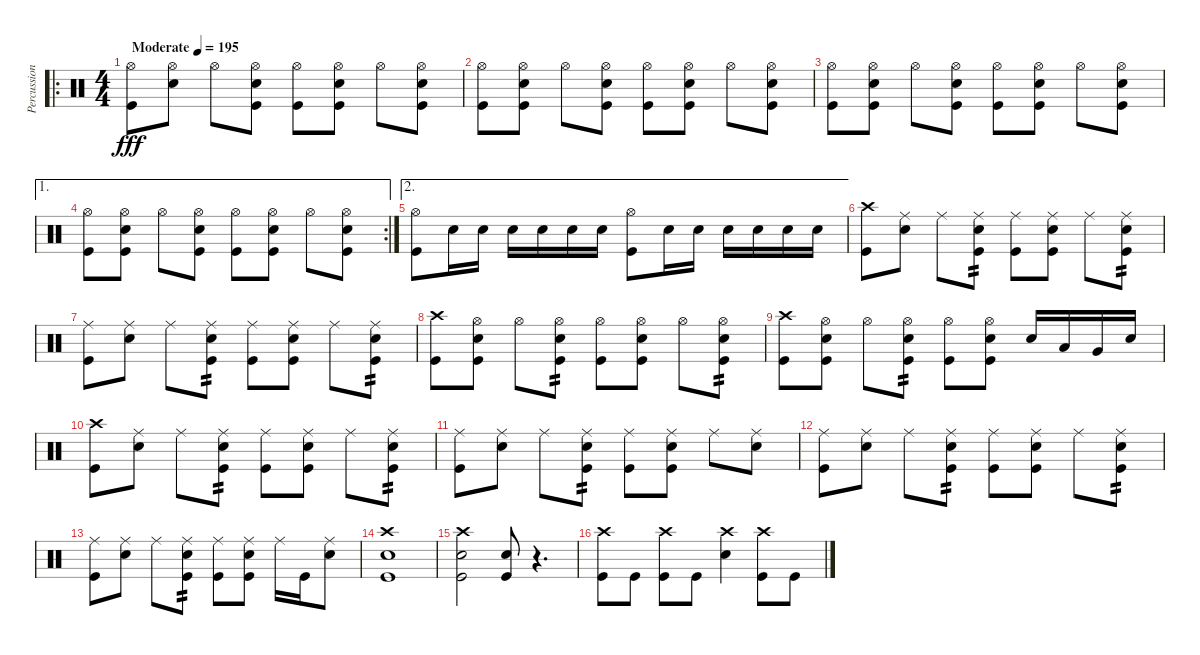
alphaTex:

\track ("Percussions" "Percussion") {instrument percussion}
\staff {score}
\articulation defaults
\ro
\ts (4 4)
\tempo (195 "Moderate")
\clef neutral
\ks c
("Hi-Hat (open)" "Kick (hit)").8{dy fff} ("Hi-Hat (open)" "Electric Snare (hit)").8 "Hi-Hat (open)".8 ("Hi-Hat (open)" "Electric Snare (hit)" "Kick (hit)").8 ("Hi-Hat (open)" "Kick (hit)").8 ("Hi-Hat (open)" "Electric Snare (hit)" "Kick (hit)").8 "Hi-Hat (open)".8 ("Hi-Hat (open)" "Electric Snare (hit)" "Kick (hit)").8 |
("Hi-Hat (open)" "Kick (hit)").8 ("Hi-Hat (open)" "Electric Snare (hit)" "Kick (hit)").8 "Hi-Hat (open)".8 ("Hi-Hat (open)" "Electric Snare (hit)" "Kick (hit)").8 ("Hi-Hat (open)" "Kick (hit)").8 ("Hi-Hat (open)" "Electric Snare (hit)" "Kick (hit)").8 "Hi-Hat (open)".8 ("Hi-Hat (open)" "Electric Snare (hit)" "Kick (hit)").8 |
("Hi-Hat (open)" "Kick (hit)").8 ("Hi-Hat (open)" "Electric Snare (hit)" "Kick (hit)").8 "Hi-Hat (open)".8 ("Hi-Hat (open)" "Electric Snare (hit)" "Kick (hit)").8 ("Hi-Hat (open)" "Kick (hit)").8 ("Hi-Hat (open)" "Electric Snare (hit)" "Kick (hit)").8 "Hi-Hat (open)".8 ("Hi-Hat (open)" "Electric Snare (hit)" "Kick (hit)").8 |
\ae 1
\rc 2
("Hi-Hat (open)" "Kick (hit)").8 ("Hi-Hat (open)" "Electric Snare (hit)" "Kick (hit)").8 "Hi-Hat (open)".8 ("Hi-Hat (open)" "Electric Snare (hit)" "Kick (hit)").8 ("Hi-Hat (open)" "Kick (hit)").8 ("Hi-Hat (open)" "Electric Snare (hit)" "Kick (hit)").8 "Hi-Hat (open)".8 ("Hi-Hat (open)" "Electric Snare (hit)" "Kick (hit)").8 |
\ae 2
("Hi-Hat (open)" "Kick (hit)").8 "Electric Snare (hit)".16 "Electric Snare (hit)".16 "Electric Snare (hit)".16 "Electric Snare (hit)".16 "Electric Snare (hit)".16 "Electric Snare (hit)".16 ("Hi-Hat (open)" "Kick (hit)").8 "Electric Snare (hit)".16 "Electric Snare (hit)".16 "Electric Snare (hit)".16 "Electric Snare (hit)".16 "Electric Snare (hit)".16 "Electric Snare (hit)".16 |
("Crash high (hit)" "Kick (hit)").8 ("Ride (middle)" "Electric Snare (hit)").8 "Ride (middle)".8 ("Ride (middle)" "Electric Snare (hit)" "Kick (hit)").8{tp 2} ("Ride (middle)" "Kick (hit)").8 ("Ride (middle)" "Electric Snare (hit)" "Kick (hit)").8 "Ride (middle)".8 ("Ride (middle)" "Electric Snare (hit)" "Kick (hit)").8{tp 2} |
("Ride (middle)" "Kick (hit)").8 ("Ride (middle)" "Electric Snare (hit)").8 "Ride (middle)".8 ("Ride (middle)" "Electric Snare (hit)" "Kick (hit)").8{tp 2} ("Ride (middle)" "Kick (hit)").8 ("Ride (middle)" "Electric Snare (hit)" "Kick (hit)").8 "Ride (middle)".8 ("Ride (middle)" "Electric Snare (hit)" "Kick (hit)").8{tp 2} |
("Crash high (hit)" "Kick (hit)").8 ("Hi-Hat (open)" "Electric Snare (hit)" "Kick (hit)").8 "Hi-Hat (open)".8 ("Hi-Hat (open)" "Electric Snare (hit)" "Kick (hit)").8{tp 2} ("Hi-Hat (open)" "Kick (hit)").8 ("Hi-Hat (open)" "Electric Snare (hit)" "Kick (hit)").8 "Hi-Hat (open)".8 ("Hi-Hat (open)" "Electric Snare (hit)" "Kick (hit)").8{tp 2} |
("Crash high (hit)" "Kick (hit)").8 ("Hi-Hat (open)" "Electric Snare (hit)" "Kick (hit)").8 "Hi-Hat (open)".8 ("Hi-Hat (open)" "Electric Snare (hit)" "Kick (hit)").8{tp 2} ("Hi-Hat (open)" "Kick (hit)").8 ("Hi-Hat (open)" "Electric Snare (hit)" "Kick (hit)").8 "Electric Snare (hit)".16 "Low Tom (hit)".16 "Very Low Tom (hit)".16 "Electric Snare (hit)".16 |
("Crash high (hit)" "Kick (hit)").8 ("Ride (middle)" "Electric Snare (hit)").8 "Ride (middle)".8 ("Ride (middle)" "Electric Snare (hit)" "Kick (hit)").8{tp 2} ("Ride (middle)" "Kick (hit)").8 ("Ride (middle)" "Electric Snare (hit)" "Kick (hit)").8 "Ride (middle)".8 ("Ride (middle)" "Electric Snare (hit)" "Kick (hit)").8{tp 2} |
("Ride (middle)" "Kick (hit)").8 ("Ride (middle)" "Electric Snare (hit)").8 "Ride (middle)".8 ("Ride (middle)" "Electric Snare (hit)" "Kick (hit)").8{tp 2} ("Ride (middle)" "Kick (hit)").8 ("Ride (middle)" "Electric Snare (hit)" "Kick (hit)").8 "Ride (middle)".8 ("Ride (middle)" "Electric Snare (hit)").8 |
("Ride (middle)" "Kick (hit)").8 ("Ride (middle)" "Electric Snare (hit)").8 "Ride (middle)".8 ("Ride (middle)" "Electric Snare (hit)" "Kick (hit)").8{tp 2} ("Ride (middle)" "Kick (hit)").8 ("Ride (middle)" "Electric Snare (hit)" "Kick (hit)").8 "Ride (middle)".8 ("Ride (middle)" "Electric Snare (hit)" "Kick (hit)").8{tp 2} |
("Ride (middle)" "Kick (hit)").8 ("Ride (middle)" "Electric Snare (hit)").8 "Ride (middle)".8 ("Ride (middle)" "Electric Snare (hit)" "Kick (hit)").8{tp 2} ("Ride (middle)" "Kick (hit)").8 ("Ride (middle)" "Electric Snare (hit)" "Kick (hit)").8 "Ride (middle)".16 "Kick (hit)".16 ("Ride (middle)" "Electric Snare (hit)").8 |
("Crash high (hit)" "Electric Snare (hit)" "Kick (hit)").1 |
("Crash high (hit)" "Electric Snare (hit)" "Kick (hit)").2 ("Electric Snare (hit)" "Kick (hit)").8 r.4{d} |
("Crash high (hit)" "Kick (hit)").8 "Kick (hit)".8 ("Crash high (hit)" "Kick (hit)").8 "Kick (hit)".8 ("Crash high (hit)" "Electric Snare (hit)").4 ("Crash high (hit)" "Kick (hit)").8 "Kick (hit)".8
